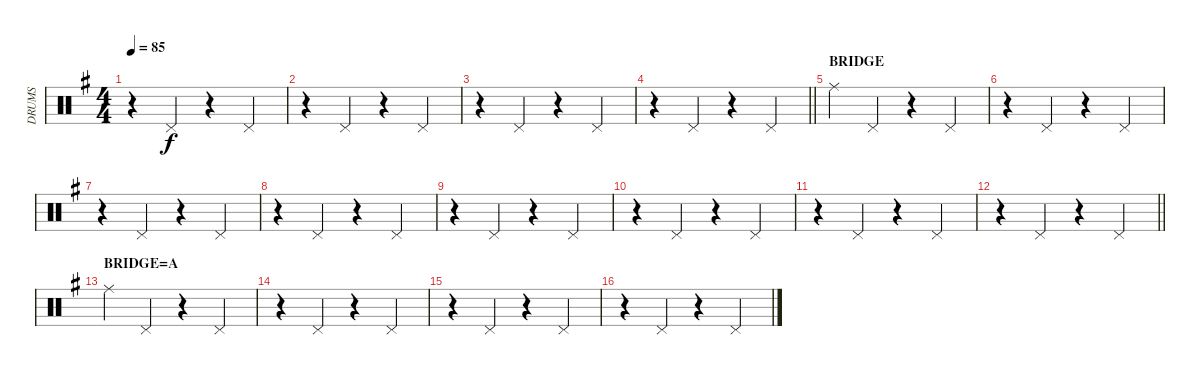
\track ("DRUMS" "DRUMS") {instrument percussion}
\staff {score}
\articulation defaults
\ts (4 4)
\tempo 85
\clef neutral
\ks g
r.4{dy f} "Pedal Hi-Hat (hit)".4 r.4 "Pedal Hi-Hat (hit)".4 |
r.4 "Pedal Hi-Hat (hit)".4 r.4 "Pedal Hi-Hat (hit)".4 |
r.4 "Pedal Hi-Hat (hit)".4 r.4 "Pedal Hi-Hat (hit)".4 |
\barLineRight lightlight
r.4 "Pedal Hi-Hat (hit)".4 r.4 "Pedal Hi-Hat (hit)".4 |
\section ("" "BRIDGE")
"Ride (middle)".4 "Pedal Hi-Hat (hit)".4 r.4 "Pedal Hi-Hat (hit)".4 |
r.4 "Pedal Hi-Hat (hit)".4 r.4 "Pedal Hi-Hat (hit)".4 |
r.4 "Pedal Hi-Hat (hit)".4 r.4 "Pedal Hi-Hat (hit)".4 |
r.4 "Pedal Hi-Hat (hit)".4 r.4 "Pedal Hi-Hat (hit)".4 |
r.4 "Pedal Hi-Hat (hit)".4 r.4 "Pedal Hi-Hat (hit)".4 |
r.4 "Pedal Hi-Hat (hit)".4 r.4 "Pedal Hi-Hat (hit)".4 |
r.4 "Pedal Hi-Hat (hit)".4 r.4 "Pedal Hi-Hat (hit)".4 |
\barLineRight lightlight
r.4 "Pedal Hi-Hat (hit)".4 r.4 "Pedal Hi-Hat (hit)".4 |
\section ("" "BRIDGE=A")
"Ride (middle)".4 "Pedal Hi-Hat (hit)".4 r.4 "Pedal Hi-Hat (hit)".4 |
r.4 "Pedal Hi-Hat (hit)".4 r.4 "Pedal Hi-Hat (hit)".4 |
r.4 "Pedal Hi-Hat (hit)".4 r.4 "Pedal Hi-Hat (hit)".4 |
r.4 "Pedal Hi-Hat (hit)".4 r.4 "Pedal Hi-Hat (hit)".4
